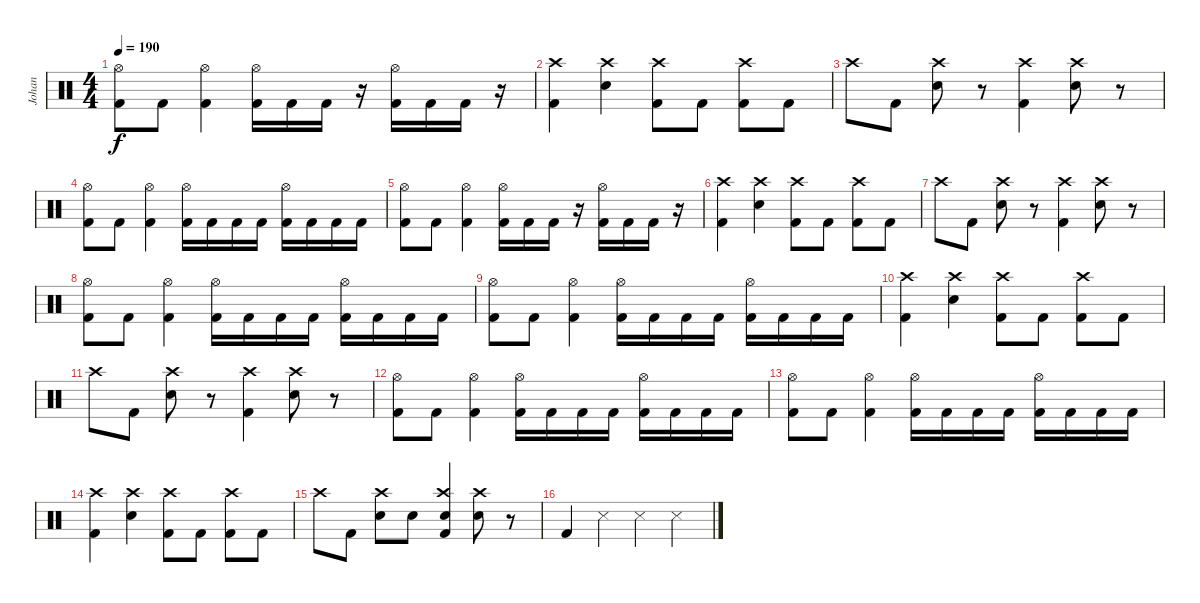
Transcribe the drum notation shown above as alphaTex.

\track ("Johan" "Johan") {instrument percussion}
\staff {score}
\articulation defaults
\ts (4 4)
\tempo 190
\clef neutral
\ks c
("Hi-Hat (open)" "Kick (hit) 2").8{dy f} "Kick (hit) 2".8 ("Hi-Hat (open)" "Kick (hit) 2").4 ("Hi-Hat (open)" "Kick (hit) 2").16 "Kick (hit) 2".16 "Kick (hit) 2".16 r.16 ("Hi-Hat (open)" "Kick (hit) 2").16 "Kick (hit) 2".16 "Kick (hit) 2".16 r.16 |
("Crash high (hit)" "Kick (hit) 2").4 ("Electric Snare (hit)" "Crash high (hit)").4 ("Crash high (hit)" "Kick (hit) 2").8 "Kick (hit) 2".8 ("Crash high (hit)" "Kick (hit) 2").8 "Kick (hit) 2".8 |
"Crash high (hit)".8 "Kick (hit) 2".8 ("Electric Snare (hit)" "Crash high (hit)").8 r.8 ("Crash high (hit)" "Kick (hit) 2").4 ("Electric Snare (hit)" "Crash high (hit)").8 r.8 |
("Hi-Hat (open)" "Kick (hit) 2").8 "Kick (hit) 2".8 ("Hi-Hat (open)" "Kick (hit) 2").4 ("Hi-Hat (open)" "Kick (hit) 2").16 "Kick (hit) 2".16 "Kick (hit) 2".16 "Kick (hit) 2".16 ("Hi-Hat (open)" "Kick (hit) 2").16 "Kick (hit) 2".16 "Kick (hit) 2".16 "Kick (hit) 2".16 |
("Hi-Hat (open)" "Kick (hit) 2").8 "Kick (hit) 2".8 ("Hi-Hat (open)" "Kick (hit) 2").4 ("Hi-Hat (open)" "Kick (hit) 2").16 "Kick (hit) 2".16 "Kick (hit) 2".16 r.16 ("Hi-Hat (open)" "Kick (hit) 2").16 "Kick (hit) 2".16 "Kick (hit) 2".16 r.16 |
("Crash high (hit)" "Kick (hit) 2").4 ("Electric Snare (hit)" "Crash high (hit)").4 ("Crash high (hit)" "Kick (hit) 2").8 "Kick (hit) 2".8 ("Crash high (hit)" "Kick (hit) 2").8 "Kick (hit) 2".8 |
"Crash high (hit)".8 "Kick (hit) 2".8 ("Electric Snare (hit)" "Crash high (hit)").8 r.8 ("Crash high (hit)" "Kick (hit) 2").4 ("Electric Snare (hit)" "Crash high (hit)").8 r.8 |
("Hi-Hat (open)" "Kick (hit) 2").8 "Kick (hit) 2".8 ("Hi-Hat (open)" "Kick (hit) 2").4 ("Hi-Hat (open)" "Kick (hit) 2").16 "Kick (hit) 2".16 "Kick (hit) 2".16 "Kick (hit) 2".16 ("Hi-Hat (open)" "Kick (hit) 2").16 "Kick (hit) 2".16 "Kick (hit) 2".16 "Kick (hit) 2".16 |
("Hi-Hat (open)" "Kick (hit) 2").8 "Kick (hit) 2".8 ("Hi-Hat (open)" "Kick (hit) 2").4 ("Hi-Hat (open)" "Kick (hit) 2").16 "Kick (hit) 2".16 "Kick (hit) 2".16 "Kick (hit) 2".16 ("Hi-Hat (open)" "Kick (hit) 2").16 "Kick (hit) 2".16 "Kick (hit) 2".16 "Kick (hit) 2".16 |
("Crash high (hit)" "Kick (hit) 2").4 ("Electric Snare (hit)" "Crash high (hit)").4 ("Crash high (hit)" "Kick (hit) 2").8 "Kick (hit) 2".8 ("Crash high (hit)" "Kick (hit) 2").8 "Kick (hit) 2".8 |
"Crash high (hit)".8 "Kick (hit) 2".8 ("Electric Snare (hit)" "Crash high (hit)").8 r.8 ("Crash high (hit)" "Kick (hit) 2").4 ("Electric Snare (hit)" "Crash high (hit)").8 r.8 |
("Hi-Hat (open)" "Kick (hit) 2").8 "Kick (hit) 2".8 ("Hi-Hat (open)" "Kick (hit) 2").4 ("Hi-Hat (open)" "Kick (hit) 2").16 "Kick (hit) 2".16 "Kick (hit) 2".16 "Kick (hit) 2".16 ("Hi-Hat (open)" "Kick (hit) 2").16 "Kick (hit) 2".16 "Kick (hit) 2".16 "Kick (hit) 2".16 |
("Hi-Hat (open)" "Kick (hit) 2").8 "Kick (hit) 2".8 ("Hi-Hat (open)" "Kick (hit) 2").4 ("Hi-Hat (open)" "Kick (hit) 2").16 "Kick (hit) 2".16 "Kick (hit) 2".16 "Kick (hit) 2".16 ("Hi-Hat (open)" "Kick (hit) 2").16 "Kick (hit) 2".16 "Kick (hit) 2".16 "Kick (hit) 2".16 |
("Crash high (hit)" "Kick (hit) 2").4 ("Electric Snare (hit)" "Crash high (hit)").4 ("Crash high (hit)" "Kick (hit) 2").8 "Kick (hit) 2".8 ("Crash high (hit)" "Kick (hit) 2").8 "Kick (hit) 2".8 |
"Crash high (hit)".8 "Kick (hit) 2".8 ("Electric Snare (hit)" "Crash high (hit)").8 "Electric Snare (hit)".8 ("Electric Snare (hit)" "Crash high (hit)" "Kick (hit) 2").4 ("Electric Snare (hit)" "Crash high (hit)").8 r.8 |
"Kick (hit) 2".4 "Snare (side stick) 3".4 "Snare (side stick) 3".4 "Snare (side stick) 3".4
